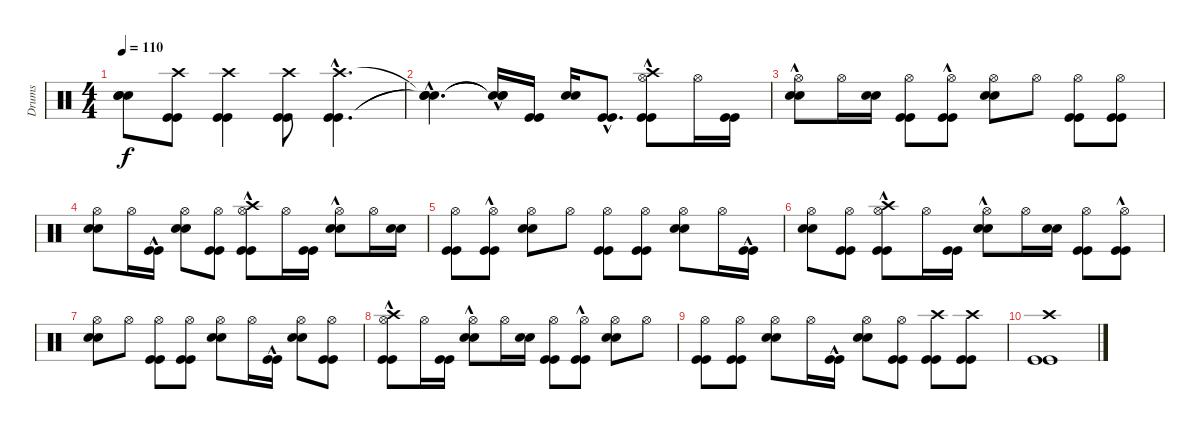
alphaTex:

\track ("Drums" "Drums") {instrument percussion}
\staff {score}
\articulation defaults
\ts (4 4)
\tempo 110
\clef neutral
\ks c
("Snare (hit)"{t} "Snare (hit)"{t} "Snare (hit)"{t}).8{dy f} ("Kick (hit)" "Kick (hit)" "Crash high (hit)").8 ("Kick (hit)" "Kick (hit)" "Crash high (hit)").4 ("Kick (hit)" "Kick (hit)" "Crash high (hit)").8 ("Kick (hit)"{hac} "Kick (hit)"{hac} "Crash high (hit)"{hac}).4{d} |
("Snare (hit)"{hac t} "Snare (hit)"{hac t} "Snare (hit)"{hac t}).4{d} ("Snare (hit)"{t} "Snare (hit)"{t} "Snare (hit)"{hac t}).16 ("Kick (hit)" "Kick (hit)").16 ("Snare (hit) 2" "Snare (hit) 2").16 ("Kick (hit)"{hac} "Kick (hit)"{hac}).8{d} ("Kick (hit)"{hac} "Kick (hit)"{hac} "Hi-Hat (open)" "Crash high (hit)").8 "Hi-Hat (open)".16 ("Kick (hit)" "Kick (hit)").16 |
("Snare (hit) 2"{hac} "Snare (hit) 2"{hac} "Hi-Hat (open)").8 "Hi-Hat (open)".16 ("Snare (hit) 2" "Snare (hit) 2").16 ("Kick (hit)" "Kick (hit)" "Hi-Hat (open)").8 ("Kick (hit)"{hac} "Kick (hit)"{hac} "Hi-Hat (open)").8 ("Snare (hit) 2" "Snare (hit) 2" "Hi-Hat (open)").8 "Hi-Hat (open)".8 ("Kick (hit)" "Kick (hit)" "Hi-Hat (open)").8 ("Kick (hit)" "Kick (hit)" "Hi-Hat (open)").8 |
("Snare (hit) 2" "Snare (hit) 2" "Hi-Hat (open)").8 "Hi-Hat (open)".16 ("Kick (hit)"{hac} "Kick (hit)"{hac}).16 ("Snare (hit) 2" "Snare (hit) 2" "Hi-Hat (open)").8 ("Kick (hit)" "Kick (hit)" "Hi-Hat (open)").8 ("Kick (hit)"{hac} "Kick (hit)"{hac} "Hi-Hat (open)" "Crash high (hit)").8 "Hi-Hat (open)".16 ("Kick (hit)" "Kick (hit)").16 ("Snare (hit) 2"{hac} "Snare (hit) 2"{hac} "Hi-Hat (open)").8 "Hi-Hat (open)".16 ("Snare (hit) 2" "Snare (hit) 2").16 |
("Kick (hit)" "Kick (hit)" "Hi-Hat (open)").8 ("Kick (hit)"{hac} "Kick (hit)"{hac} "Hi-Hat (open)").8 ("Snare (hit) 2" "Snare (hit) 2" "Hi-Hat (open)").8 "Hi-Hat (open)".8 ("Kick (hit)" "Kick (hit)" "Hi-Hat (open)").8 ("Kick (hit)" "Kick (hit)" "Hi-Hat (open)").8 ("Snare (hit) 2" "Snare (hit) 2" "Hi-Hat (open)").8 "Hi-Hat (open)".16 ("Kick (hit)"{hac} "Kick (hit)"{hac}).16 |
("Snare (hit) 2" "Snare (hit) 2" "Hi-Hat (open)").8 ("Kick (hit)" "Kick (hit)" "Hi-Hat (open)").8 ("Kick (hit)"{hac} "Kick (hit)"{hac} "Hi-Hat (open)" "Crash high (hit)").8 "Hi-Hat (open)".16 ("Kick (hit)" "Kick (hit)").16 ("Snare (hit) 2"{hac} "Snare (hit) 2"{hac} "Hi-Hat (open)").8 "Hi-Hat (open)".16 ("Snare (hit) 2" "Snare (hit) 2").16 ("Kick (hit)" "Kick (hit)" "Hi-Hat (open)").8 ("Kick (hit)"{hac} "Kick (hit)"{hac} "Hi-Hat (open)").8 |
("Snare (hit) 2" "Snare (hit) 2" "Hi-Hat (open)").8 "Hi-Hat (open)".8 ("Kick (hit)" "Kick (hit)" "Hi-Hat (open)").8 ("Kick (hit)" "Kick (hit)" "Hi-Hat (open)").8 ("Snare (hit) 2" "Snare (hit) 2" "Hi-Hat (open)").8 "Hi-Hat (open)".16 ("Kick (hit)"{hac} "Kick (hit)"{hac}).16 ("Snare (hit) 2" "Snare (hit) 2" "Hi-Hat (open)").8 ("Kick (hit)" "Kick (hit)" "Hi-Hat (open)").8 |
("Kick (hit)"{hac} "Kick (hit)"{hac} "Hi-Hat (open)" "Crash high (hit)").8 "Hi-Hat (open)".16 ("Kick (hit)" "Kick (hit)").16 ("Snare (hit) 2"{hac} "Snare (hit) 2"{hac} "Hi-Hat (open)").8 "Hi-Hat (open)".16 ("Snare (hit) 2" "Snare (hit) 2").16 ("Kick (hit)" "Kick (hit)" "Hi-Hat (open)").8 ("Kick (hit)"{hac} "Kick (hit)"{hac} "Hi-Hat (open)").8 ("Snare (hit) 2" "Snare (hit) 2" "Hi-Hat (open)").8 "Hi-Hat (open)".8 |
("Kick (hit)" "Kick (hit)" "Hi-Hat (open)").8 ("Kick (hit)" "Kick (hit)" "Hi-Hat (open)").8 ("Snare (hit) 2" "Snare (hit) 2" "Hi-Hat (open)").8 "Hi-Hat (open)".16 ("Kick (hit)"{hac} "Kick (hit)"{hac}).16 ("Snare (hit) 2" "Snare (hit) 2" "Hi-Hat (open)").8 ("Kick (hit)" "Kick (hit)" "Hi-Hat (open)").8 ("Kick (hit)" "Kick (hit)" "Crash high (hit)").8 ("Kick (hit)" "Kick (hit)" "Crash high (hit)").8 |
("Kick (hit)" "Kick (hit)" "Crash high (hit)").1
